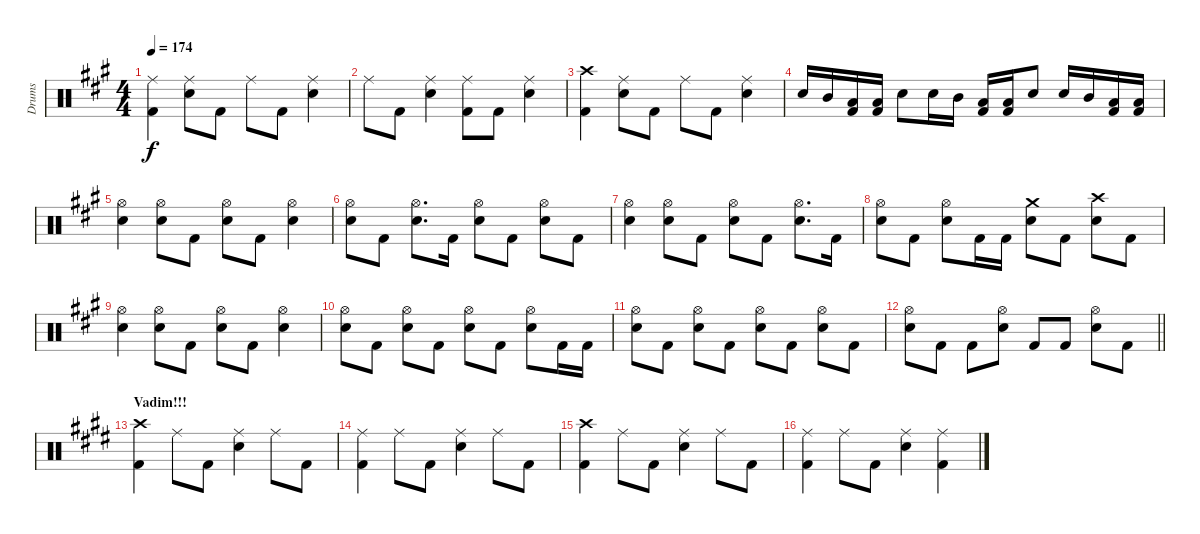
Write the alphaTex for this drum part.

\track ("Drums" "Drums") {instrument percussion}
\staff {score}
\articulation defaults
\ts (4 4)
\tempo 174
\clef neutral
\ks f#minor
("Ride (middle)" "Kick (hit) 2").4{dy f} ("Ride (middle)" "Snare (hit) 2").8 "Kick (hit) 2".8 "Ride (middle)".8 "Kick (hit) 2".8 ("Ride (middle)" "Snare (hit) 2").4 |
"Ride (middle)".8 "Kick (hit) 2".8 ("Ride (middle)" "Snare (hit) 2").4 ("Ride (middle)" "Kick (hit) 2").8 "Kick (hit) 2".8 ("Ride (middle)" "Snare (hit) 2").4 |
("Crash high (hit)" "Kick (hit) 2").4 ("Ride (middle)" "Snare (hit) 2").8 "Kick (hit) 2".8 "Ride (middle)".8 "Kick (hit) 2".8 ("Ride (middle)" "Snare (hit) 2").4 |
"Snare (hit) 2".16 "Mid Tom (hit)".16 ("Low Tom (hit)" "Kick (hit) 2").16 ("Low Tom (hit)" "Kick (hit) 2").16 "Snare (hit) 2".8 "Snare (hit) 2".16 "Mid Tom (hit)".16 ("Low Tom (hit)" "Kick (hit) 2").16 ("Low Tom (hit)" "Kick (hit) 2").16 "Snare (hit) 2".8 "Snare (hit) 2".16 "Mid Tom (hit)".16 ("Low Tom (hit)" "Kick (hit) 2").16 ("Low Tom (hit)" "Kick (hit) 2").16 |
("Hi-Hat (open)" "Snare (hit) 2").4 ("Hi-Hat (open)" "Snare (hit) 2").8 "Kick (hit) 2".8 ("Hi-Hat (open)" "Snare (hit) 2").8 "Kick (hit) 2".8 ("Hi-Hat (open)" "Snare (hit) 2").4 |
("Hi-Hat (open)" "Snare (hit) 2").8 "Kick (hit) 2".8 ("Hi-Hat (open)" "Snare (hit) 2").8{d} "Kick (hit) 2".16 ("Hi-Hat (open)" "Snare (hit) 2").8 "Kick (hit) 2".8 ("Hi-Hat (open)" "Snare (hit) 2").8 "Kick (hit) 2".8 |
("Hi-Hat (open)" "Snare (hit) 2").4 ("Hi-Hat (open)" "Snare (hit) 2").8 "Kick (hit) 2".8 ("Hi-Hat (open)" "Snare (hit) 2").8 "Kick (hit) 2".8 ("Hi-Hat (open)" "Snare (hit) 2").8{d} "Kick (hit) 2".16 |
("Hi-Hat (open)" "Snare (hit) 2").8 "Kick (hit) 2".8 ("Hi-Hat (open)" "Snare (hit) 2").8 "Kick (hit) 2".16 "Kick (hit) 2".16 ("Crash medium (hit)" "Snare (hit) 2").8 "Kick (hit) 2".8 ("Crash high (hit)" "Snare (hit) 2").8 "Kick (hit) 2".8 |
("Hi-Hat (open)" "Snare (hit) 2").4 ("Hi-Hat (open)" "Snare (hit) 2").8 "Kick (hit) 2".8 ("Hi-Hat (open)" "Snare (hit) 2").8 "Kick (hit) 2".8 ("Hi-Hat (open)" "Snare (hit) 2").4 |
("Hi-Hat (open)" "Snare (hit) 2").8 "Kick (hit) 2".8 ("Hi-Hat (open)" "Snare (hit) 2").8 "Kick (hit) 2".8 ("Hi-Hat (open)" "Snare (hit) 2").8 "Kick (hit) 2".8 ("Hi-Hat (open)" "Snare (hit) 2").8 "Kick (hit) 2".16 "Kick (hit) 2".16 |
("Hi-Hat (open)" "Snare (hit) 2").8 "Kick (hit) 2".8 ("Hi-Hat (open)" "Snare (hit) 2").8 "Kick (hit) 2".8 ("Hi-Hat (open)" "Snare (hit) 2").8 "Kick (hit) 2".8 ("Hi-Hat (open)" "Snare (hit) 2").8 "Kick (hit) 2".8 |
\barLineRight lightlight
("Hi-Hat (open)" "Snare (hit) 2").8 "Kick (hit) 2".8 "Kick (hit) 2".8 ("Hi-Hat (open)" "Snare (hit) 2").8 "Kick (hit) 2".8 "Kick (hit) 2".8 ("Hi-Hat (open)" "Snare (hit) 2").8 "Kick (hit) 2".8 |
\section ("" "Vadim!!!")
\ks e
("Crash high (hit)" "Kick (hit) 2").4 "Ride (middle)".8 "Kick (hit) 2".8 ("Ride (middle)" "Snare (hit) 2").4 "Ride (middle)".8 "Kick (hit) 2".8 |
("Ride (middle)" "Kick (hit) 2").4 "Ride (middle)".8 "Kick (hit) 2".8 ("Ride (middle)" "Snare (hit) 2").4 "Ride (middle)".8 "Kick (hit) 2".8 |
("Crash high (hit)" "Kick (hit) 2").4 "Ride (middle)".8 "Kick (hit) 2".8 ("Ride (middle)" "Snare (hit) 2").4 "Ride (middle)".8 "Kick (hit) 2".8 |
("Ride (middle)" "Kick (hit) 2").4 "Ride (middle)".8 "Kick (hit) 2".8 ("Ride (middle)" "Snare (hit) 2").4 ("Ride (middle)" "Kick (hit) 2").4
